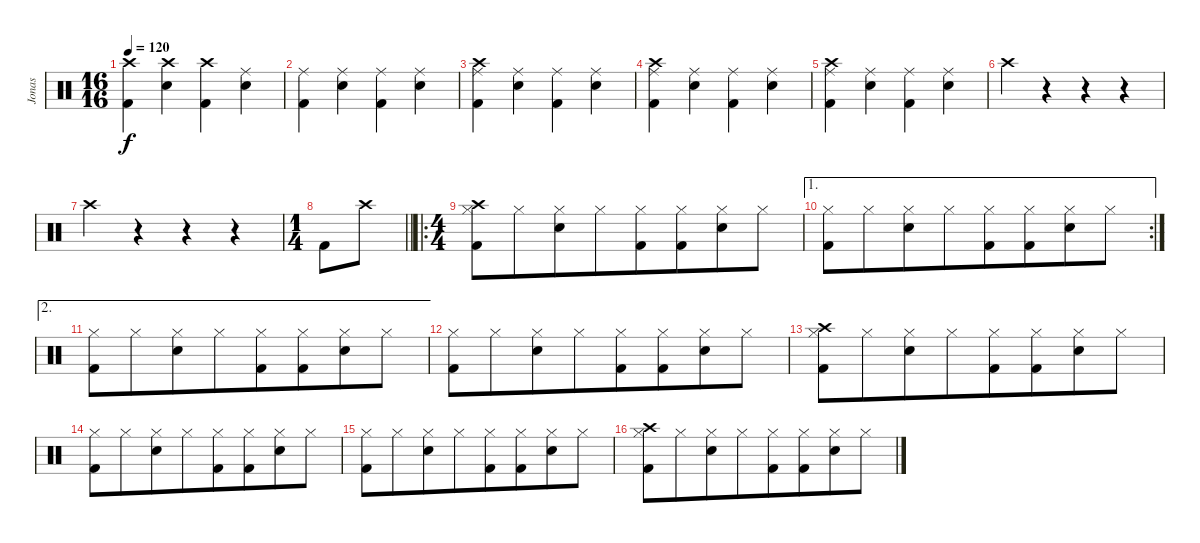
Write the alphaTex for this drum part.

\track ("Jonas" "Jonas") {instrument percussion}
\staff {score}
\articulation defaults
\ts (16 16)
\tempo 120
\clef neutral
\ks c
("Crash high (hit)" "Kick (hit) 2").4{dy f} ("Crash high (hit)" "Snare (hit) 2").4 ("Crash high (hit)" "Kick (hit) 2").4 ("Ride (middle)" "Snare (hit) 2").4 |
("Ride (middle)" "Kick (hit) 2").4 ("Ride (middle)" "Snare (hit) 2").4 ("Ride (middle)" "Kick (hit) 2").4 ("Ride (middle)" "Snare (hit) 2").4 |
("Crash high (hit)" "Ride (middle)" "Kick (hit) 2").4 ("Ride (middle)" "Snare (hit) 2").4 ("Ride (middle)" "Kick (hit) 2").4 ("Ride (middle)" "Snare (hit) 2").4 |
("Crash high (hit)" "Ride (middle)" "Kick (hit) 2").4 ("Ride (middle)" "Snare (hit) 2").4 ("Ride (middle)" "Kick (hit) 2").4 ("Ride (middle)" "Snare (hit) 2").4 |
("Crash high (hit)" "Ride (middle)" "Kick (hit) 2").4 ("Ride (middle)" "Snare (hit) 2").4 ("Ride (middle)" "Kick (hit) 2").4 ("Ride (middle)" "Snare (hit) 2").4 |
"Crash high (hit)".4 r.4 r.4 r.4 |
"Crash high (hit)".4 r.4 r.4 r.4 |
\ts (1 4)
\barLineRight lightlight "Kick (hit) 2".8 "Crash high (hit)".8
|
\ro
\ts (4 4)
("Crash high (hit)" "Hi-Hat (closed)" "Kick (hit) 2").8 "Hi-Hat (closed)".8{beam merge} ("Hi-Hat (closed)" "Snare (hit) 2").8 "Hi-Hat (closed)".8{beam merge} ("Hi-Hat (closed)" "Kick (hit) 2").8 ("Hi-Hat (closed)" "Kick (hit) 2").8{beam merge} ("Hi-Hat (closed)" "Snare (hit) 2").8 "Hi-Hat (closed)".8 |
\ae 1
\rc 2
("Hi-Hat (closed)" "Kick (hit) 2").8 "Hi-Hat (closed)".8{beam merge} ("Hi-Hat (closed)" "Snare (hit) 2").8 "Hi-Hat (closed)".8{beam merge} ("Hi-Hat (closed)" "Kick (hit) 2").8 ("Hi-Hat (closed)" "Kick (hit) 2").8{beam merge} ("Hi-Hat (closed)" "Snare (hit) 2").8 "Hi-Hat (closed)".8 |
\ae 2
("Hi-Hat (closed)" "Kick (hit) 2").8 "Hi-Hat (closed)".8{beam merge} ("Hi-Hat (closed)" "Snare (hit) 2").8 "Hi-Hat (closed)".8{beam merge} ("Hi-Hat (closed)" "Kick (hit) 2").8 ("Hi-Hat (closed)" "Kick (hit) 2").8{beam merge} ("Hi-Hat (closed)" "Snare (hit) 2").8 "Hi-Hat (closed)".8 |
("Hi-Hat (closed)" "Kick (hit) 2").8 "Hi-Hat (closed)".8{beam merge} ("Hi-Hat (closed)" "Snare (hit) 2").8 "Hi-Hat (closed)".8{beam merge} ("Hi-Hat (closed)" "Kick (hit) 2").8 ("Hi-Hat (closed)" "Kick (hit) 2").8{beam merge} ("Hi-Hat (closed)" "Snare (hit) 2").8 "Hi-Hat (closed)".8 |
("Crash high (hit)" "Hi-Hat (closed)" "Kick (hit) 2").8 "Hi-Hat (closed)".8{beam merge} ("Hi-Hat (closed)" "Snare (hit) 2").8 "Hi-Hat (closed)".8{beam merge} ("Hi-Hat (closed)" "Kick (hit) 2").8 ("Hi-Hat (closed)" "Kick (hit) 2").8{beam merge} ("Hi-Hat (closed)" "Snare (hit) 2").8 "Hi-Hat (closed)".8 |
("Hi-Hat (closed)" "Kick (hit) 2").8 "Hi-Hat (closed)".8{beam merge} ("Hi-Hat (closed)" "Snare (hit) 2").8 "Hi-Hat (closed)".8{beam merge} ("Hi-Hat (closed)" "Kick (hit) 2").8 ("Hi-Hat (closed)" "Kick (hit) 2").8{beam merge} ("Hi-Hat (closed)" "Snare (hit) 2").8 "Hi-Hat (closed)".8 |
("Hi-Hat (closed)" "Kick (hit) 2").8 "Hi-Hat (closed)".8{beam merge} ("Hi-Hat (closed)" "Snare (hit) 2").8 "Hi-Hat (closed)".8{beam merge} ("Hi-Hat (closed)" "Kick (hit) 2").8 ("Hi-Hat (closed)" "Kick (hit) 2").8{beam merge} ("Hi-Hat (closed)" "Snare (hit) 2").8 "Hi-Hat (closed)".8 |
("Crash high (hit)" "Hi-Hat (closed)" "Kick (hit) 2").8 "Hi-Hat (closed)".8{beam merge} ("Hi-Hat (closed)" "Snare (hit) 2").8 "Hi-Hat (closed)".8{beam merge} ("Hi-Hat (closed)" "Kick (hit) 2").8 ("Hi-Hat (closed)" "Kick (hit) 2").8{beam merge} ("Hi-Hat (closed)" "Snare (hit) 2").8 "Hi-Hat (closed)".8
